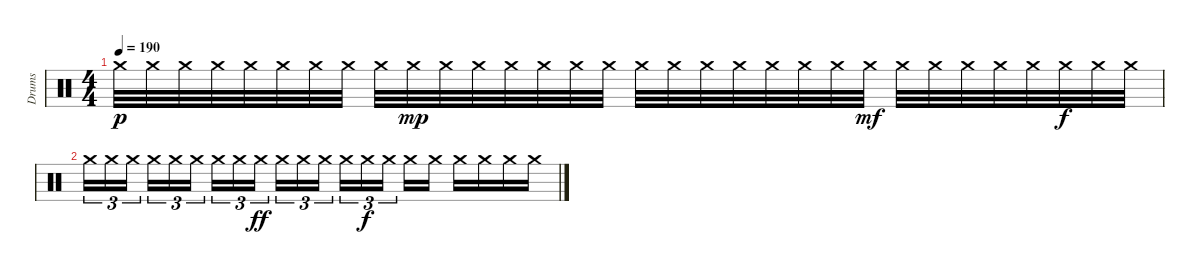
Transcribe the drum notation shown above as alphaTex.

\track ("Drums" "Drums") {instrument percussion}
\staff {score}
\articulation defaults
\ts (4 4)
\tempo 190
\clef neutral
\ks c "Crash medium (hit)".32{dy p} "Crash medium (hit)".32 "Crash medium (hit)".32 "Crash medium (hit)".32 "Crash medium (hit)".32 "Crash medium (hit)".32 "Crash medium (hit)".32 "Crash medium (hit)".32 "Crash medium (hit)".32 "Crash medium (hit)".32{dy mp} "Crash medium (hit)".32 "Crash medium (hit)".32 "Crash medium (hit)".32 "Crash medium (hit)".32 "Crash medium (hit)".32 "Crash medium (hit)".32 "Crash medium (hit)".32 "Crash medium (hit)".32 "Crash medium (hit)".32 "Crash medium (hit)".32 "Crash medium (hit)".32 "Crash medium (hit)".32 "Crash medium (hit)".32 "Crash medium (hit)".32{dy mf} "Crash medium (hit)".32 "Crash medium (hit)".32 "Crash medium (hit)".32 "Crash medium (hit)".32 "Crash medium (hit)".32 "Crash medium (hit)".32{dy f} "Crash medium (hit)".32 "Crash medium (hit)".32
|
"Crash medium (hit)".16{tu (3 2)} "Crash medium (hit)".16{tu (3 2)} "Crash medium (hit)".16{tu (3 2)} "Crash medium (hit)".16{tu (3 2)} "Crash medium (hit)".16{tu (3 2)} "Crash medium (hit)".16{tu (3 2)} "Crash medium (hit)".16{tu (3 2)} "Crash medium (hit)".16{tu (3 2)} "Crash medium (hit)".16{tu (3 2) dy ff} "Crash medium (hit)".16{tu (3 2)} "Crash medium (hit)".16{tu (3 2)} "Crash medium (hit)".16{tu (3 2)} "Crash medium (hit)".16{tu (3 2)} "Crash medium (hit)".16{tu (3 2) dy f} "Crash medium (hit)".16{tu (3 2)} "Crash medium (hit)".16 "Crash medium (hit)".16 "Crash medium (hit)".16 "Crash medium (hit)".16 "Crash medium (hit)".16 "Crash medium (hit)".16
